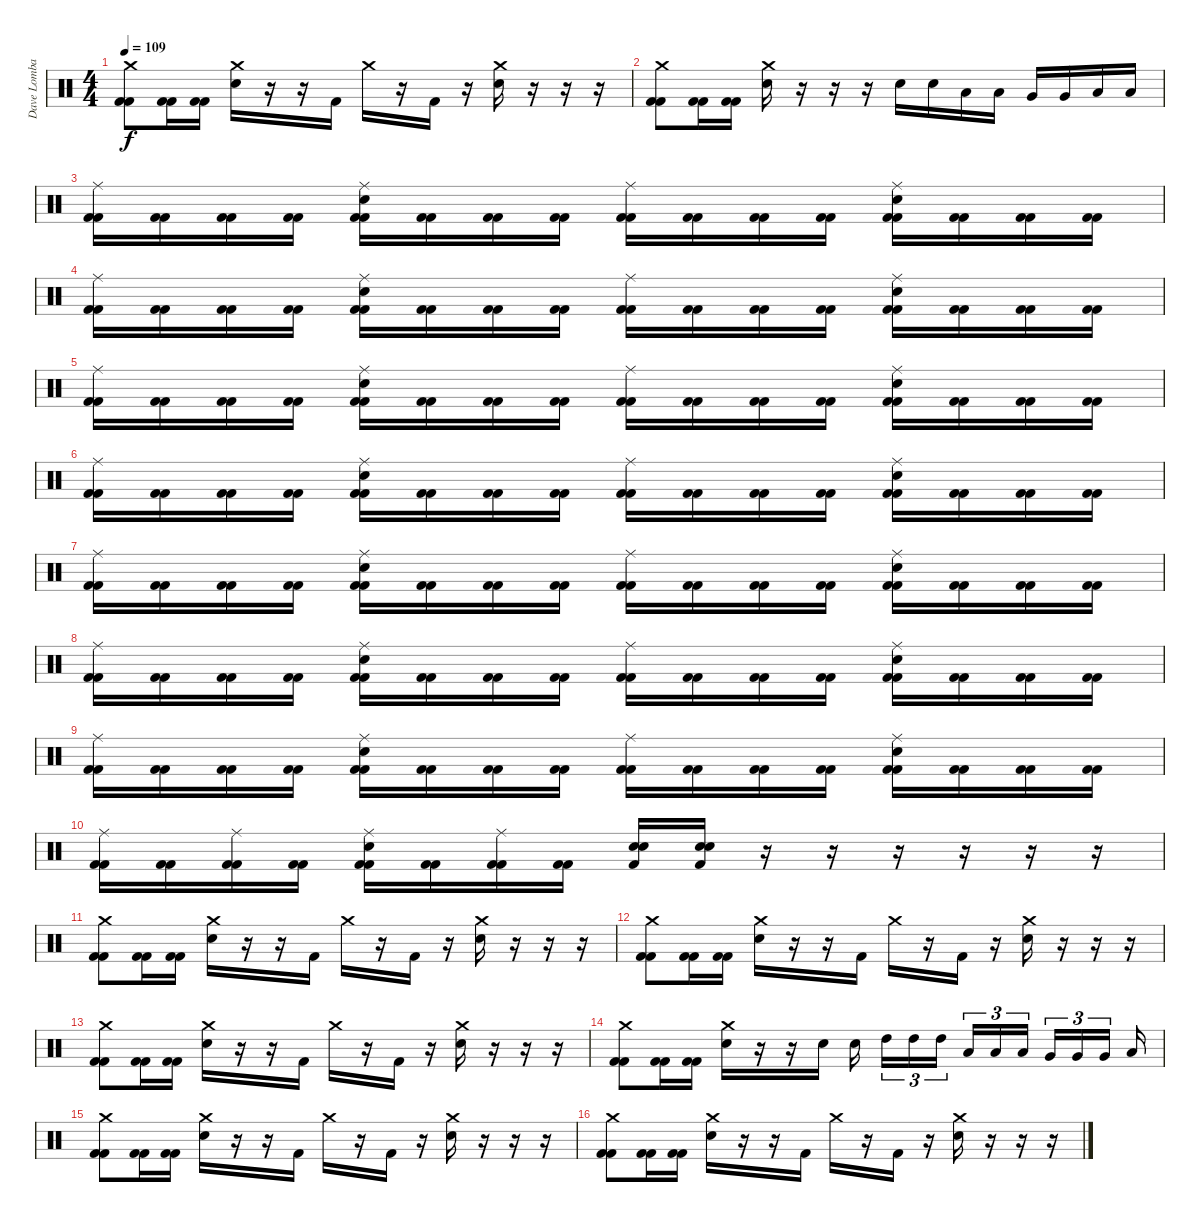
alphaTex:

\track ("Dave Lombardo" "Dave Lomba") {instrument percussion}
\staff {score}
\articulation defaults
\ts (4 4)
\tempo 109
\clef neutral
\ks c
("Kick (hit) 2" "Crash medium (hit)" "Kick (hit) 2").8{dy f} ("Kick (hit) 2" "Kick (hit) 2").16 ("Kick (hit) 2" "Kick (hit) 2").16 ("Crash medium (hit)" "Electric Snare (hit)").16 r.16 r.16 "Kick (hit) 2".16 "Crash medium (hit)".16 r.16 "Kick (hit) 2".16 r.16 ("Crash medium (hit)" "Electric Snare (hit)").16 r.16 r.16 r.16 |
("Kick (hit) 2" "Crash medium (hit)" "Kick (hit) 2").8 ("Kick (hit) 2" "Kick (hit) 2").16 ("Kick (hit) 2" "Kick (hit) 2").16 ("Crash medium (hit)" "Electric Snare (hit)").16 r.16 r.16 r.16 "Electric Snare (hit)".16 "Electric Snare (hit)".16 "Low Tom (hit)".16 "Low Tom (hit)".16 "Very Low Tom (hit)".16 "Very Low Tom (hit)".16 "Low Floor Tom (hit)".16 "Low Floor Tom (hit)".16 |
("Kick (hit) 2" "Ride (middle)" "Kick (hit) 2").16 ("Kick (hit) 2" "Kick (hit) 2").16 ("Kick (hit) 2" "Kick (hit) 2").16 ("Kick (hit) 2" "Kick (hit) 2").16 ("Kick (hit) 2" "Ride (middle)" "Electric Snare (hit)" "Kick (hit) 2").16 ("Kick (hit) 2" "Kick (hit) 2").16 ("Kick (hit) 2" "Kick (hit) 2").16 ("Kick (hit) 2" "Kick (hit) 2").16 ("Kick (hit) 2" "Ride (middle)" "Kick (hit) 2").16 ("Kick (hit) 2" "Kick (hit) 2").16 ("Kick (hit) 2" "Kick (hit) 2").16 ("Kick (hit) 2" "Kick (hit) 2").16 ("Kick (hit) 2" "Ride (middle)" "Electric Snare (hit)" "Kick (hit) 2").16 ("Kick (hit) 2" "Kick (hit) 2").16 ("Kick (hit) 2" "Kick (hit) 2").16 ("Kick (hit) 2" "Kick (hit) 2").16 |
("Kick (hit) 2" "Ride (middle)" "Kick (hit) 2").16 ("Kick (hit) 2" "Kick (hit) 2").16 ("Kick (hit) 2" "Kick (hit) 2").16 ("Kick (hit) 2" "Kick (hit) 2").16 ("Kick (hit) 2" "Ride (middle)" "Electric Snare (hit)" "Kick (hit) 2").16 ("Kick (hit) 2" "Kick (hit) 2").16 ("Kick (hit) 2" "Kick (hit) 2").16 ("Kick (hit) 2" "Kick (hit) 2").16 ("Kick (hit) 2" "Ride (middle)" "Kick (hit) 2").16 ("Kick (hit) 2" "Kick (hit) 2").16 ("Kick (hit) 2" "Kick (hit) 2").16 ("Kick (hit) 2" "Kick (hit) 2").16 ("Kick (hit) 2" "Ride (middle)" "Electric Snare (hit)" "Kick (hit) 2").16 ("Kick (hit) 2" "Kick (hit) 2").16 ("Kick (hit) 2" "Kick (hit) 2").16 ("Kick (hit) 2" "Kick (hit) 2").16 |
("Kick (hit) 2" "Ride (middle)" "Kick (hit) 2").16 ("Kick (hit) 2" "Kick (hit) 2").16 ("Kick (hit) 2" "Kick (hit) 2").16 ("Kick (hit) 2" "Kick (hit) 2").16 ("Kick (hit) 2" "Ride (middle)" "Electric Snare (hit)" "Kick (hit) 2").16 ("Kick (hit) 2" "Kick (hit) 2").16 ("Kick (hit) 2" "Kick (hit) 2").16 ("Kick (hit) 2" "Kick (hit) 2").16 ("Kick (hit) 2" "Ride (middle)" "Kick (hit) 2").16 ("Kick (hit) 2" "Kick (hit) 2").16 ("Kick (hit) 2" "Kick (hit) 2").16 ("Kick (hit) 2" "Kick (hit) 2").16 ("Kick (hit) 2" "Ride (middle)" "Electric Snare (hit)" "Kick (hit) 2").16 ("Kick (hit) 2" "Kick (hit) 2").16 ("Kick (hit) 2" "Kick (hit) 2").16 ("Kick (hit) 2" "Kick (hit) 2").16 |
("Kick (hit) 2" "Ride (middle)" "Kick (hit) 2").16 ("Kick (hit) 2" "Kick (hit) 2").16 ("Kick (hit) 2" "Kick (hit) 2").16 ("Kick (hit) 2" "Kick (hit) 2").16 ("Kick (hit) 2" "Ride (middle)" "Electric Snare (hit)" "Kick (hit) 2").16 ("Kick (hit) 2" "Kick (hit) 2").16 ("Kick (hit) 2" "Kick (hit) 2").16 ("Kick (hit) 2" "Kick (hit) 2").16 ("Kick (hit) 2" "Ride (middle)" "Kick (hit) 2").16 ("Kick (hit) 2" "Kick (hit) 2").16 ("Kick (hit) 2" "Kick (hit) 2").16 ("Kick (hit) 2" "Kick (hit) 2").16 ("Kick (hit) 2" "Ride (middle)" "Electric Snare (hit)" "Kick (hit) 2").16 ("Kick (hit) 2" "Kick (hit) 2").16 ("Kick (hit) 2" "Kick (hit) 2").16 ("Kick (hit) 2" "Kick (hit) 2").16 |
("Kick (hit) 2" "Ride (middle)" "Kick (hit) 2").16 ("Kick (hit) 2" "Kick (hit) 2").16 ("Kick (hit) 2" "Kick (hit) 2").16 ("Kick (hit) 2" "Kick (hit) 2").16 ("Kick (hit) 2" "Ride (middle)" "Electric Snare (hit)" "Kick (hit) 2").16 ("Kick (hit) 2" "Kick (hit) 2").16 ("Kick (hit) 2" "Kick (hit) 2").16 ("Kick (hit) 2" "Kick (hit) 2").16 ("Kick (hit) 2" "Ride (middle)" "Kick (hit) 2").16 ("Kick (hit) 2" "Kick (hit) 2").16 ("Kick (hit) 2" "Kick (hit) 2").16 ("Kick (hit) 2" "Kick (hit) 2").16 ("Kick (hit) 2" "Ride (middle)" "Electric Snare (hit)" "Kick (hit) 2").16 ("Kick (hit) 2" "Kick (hit) 2").16 ("Kick (hit) 2" "Kick (hit) 2").16 ("Kick (hit) 2" "Kick (hit) 2").16 |
("Kick (hit) 2" "Ride (middle)" "Kick (hit) 2").16 ("Kick (hit) 2" "Kick (hit) 2").16 ("Kick (hit) 2" "Kick (hit) 2").16 ("Kick (hit) 2" "Kick (hit) 2").16 ("Kick (hit) 2" "Ride (middle)" "Electric Snare (hit)" "Kick (hit) 2").16 ("Kick (hit) 2" "Kick (hit) 2").16 ("Kick (hit) 2" "Kick (hit) 2").16 ("Kick (hit) 2" "Kick (hit) 2").16 ("Kick (hit) 2" "Ride (middle)" "Kick (hit) 2").16 ("Kick (hit) 2" "Kick (hit) 2").16 ("Kick (hit) 2" "Kick (hit) 2").16 ("Kick (hit) 2" "Kick (hit) 2").16 ("Kick (hit) 2" "Ride (middle)" "Electric Snare (hit)" "Kick (hit) 2").16 ("Kick (hit) 2" "Kick (hit) 2").16 ("Kick (hit) 2" "Kick (hit) 2").16 ("Kick (hit) 2" "Kick (hit) 2").16 |
("Kick (hit) 2" "Ride (middle)" "Kick (hit) 2").16 ("Kick (hit) 2" "Kick (hit) 2").16 ("Kick (hit) 2" "Kick (hit) 2").16 ("Kick (hit) 2" "Kick (hit) 2").16 ("Kick (hit) 2" "Ride (middle)" "Electric Snare (hit)" "Kick (hit) 2").16 ("Kick (hit) 2" "Kick (hit) 2").16 ("Kick (hit) 2" "Kick (hit) 2").16 ("Kick (hit) 2" "Kick (hit) 2").16 ("Kick (hit) 2" "Ride (middle)" "Kick (hit) 2").16 ("Kick (hit) 2" "Kick (hit) 2").16 ("Kick (hit) 2" "Kick (hit) 2").16 ("Kick (hit) 2" "Kick (hit) 2").16 ("Kick (hit) 2" "Ride (middle)" "Electric Snare (hit)" "Kick (hit) 2").16 ("Kick (hit) 2" "Kick (hit) 2").16 ("Kick (hit) 2" "Kick (hit) 2").16 ("Kick (hit) 2" "Kick (hit) 2").16 |
("Kick (hit) 2" "Ride (middle)" "Kick (hit) 2").16 ("Kick (hit) 2" "Kick (hit) 2").16 ("Kick (hit) 2" "Ride (middle)" "Kick (hit) 2").16 ("Kick (hit) 2" "Kick (hit) 2").16 ("Kick (hit) 2" "Ride (middle)" "Electric Snare (hit)" "Kick (hit) 2").16 ("Kick (hit) 2" "Kick (hit) 2").16 ("Kick (hit) 2" "Ride (middle)" "Kick (hit) 2").16 ("Kick (hit) 2" "Kick (hit) 2").16 ("Kick (hit) 2" "Electric Snare (hit)" "Electric Snare (hit)").16 ("Kick (hit) 2" "Electric Snare (hit)" "Electric Snare (hit)").16 r.16 r.16 r.16 r.16 r.16 r.16 |
("Kick (hit) 2" "Crash medium (hit)" "Kick (hit) 2").8 ("Kick (hit) 2" "Kick (hit) 2").16 ("Kick (hit) 2" "Kick (hit) 2").16 ("Crash medium (hit)" "Electric Snare (hit)").16 r.16 r.16 "Kick (hit) 2".16 "Crash medium (hit)".16 r.16 "Kick (hit) 2".16 r.16 ("Crash medium (hit)" "Electric Snare (hit)").16 r.16 r.16 r.16 |
("Kick (hit) 2" "Crash medium (hit)" "Kick (hit) 2").8 ("Kick (hit) 2" "Kick (hit) 2").16 ("Kick (hit) 2" "Kick (hit) 2").16 ("Crash medium (hit)" "Electric Snare (hit)").16 r.16 r.16 "Kick (hit) 2".16 "Crash medium (hit)".16 r.16 "Kick (hit) 2".16 r.16 ("Crash medium (hit)" "Electric Snare (hit)").16 r.16 r.16 r.16 |
("Kick (hit) 2" "Crash medium (hit)" "Kick (hit) 2").8 ("Kick (hit) 2" "Kick (hit) 2").16 ("Kick (hit) 2" "Kick (hit) 2").16 ("Crash medium (hit)" "Electric Snare (hit)").16 r.16 r.16 "Kick (hit) 2".16 "Crash medium (hit)".16 r.16 "Kick (hit) 2".16 r.16 ("Crash medium (hit)" "Electric Snare (hit)").16 r.16 r.16 r.16 |
("Kick (hit) 2" "Crash medium (hit)" "Kick (hit) 2").8 ("Kick (hit) 2" "Kick (hit) 2").16 ("Kick (hit) 2" "Kick (hit) 2").16 ("Crash medium (hit)" "Electric Snare (hit)").16 r.16 r.16 "Electric Snare (hit)".16 "Electric Snare (hit)".16 "High Tom (hit)".16{tu (3 2)} "High Tom (hit)".16{tu (3 2)} "High Tom (hit)".16{tu (3 2)} "Low Tom (hit)".16{tu (3 2)} "Low Tom (hit)".16{tu (3 2)} "Low Tom (hit)".16{tu (3 2)} "Very Low Tom (hit)".16{tu (3 2)} "Very Low Tom (hit)".16{tu (3 2)} "Very Low Tom (hit)".16{tu (3 2)} "Low Floor Tom (hit)".16 |
("Kick (hit) 2" "Crash medium (hit)" "Kick (hit) 2").8 ("Kick (hit) 2" "Kick (hit) 2").16 ("Kick (hit) 2" "Kick (hit) 2").16 ("Crash medium (hit)" "Electric Snare (hit)").16 r.16 r.16 "Kick (hit) 2".16 "Crash medium (hit)".16 r.16 "Kick (hit) 2".16 r.16 ("Crash medium (hit)" "Electric Snare (hit)").16 r.16 r.16 r.16 |
("Kick (hit) 2" "Crash medium (hit)" "Kick (hit) 2").8 ("Kick (hit) 2" "Kick (hit) 2").16 ("Kick (hit) 2" "Kick (hit) 2").16 ("Crash medium (hit)" "Electric Snare (hit)").16 r.16 r.16 "Kick (hit) 2".16 "Crash medium (hit)".16 r.16 "Kick (hit) 2".16 r.16 ("Crash medium (hit)" "Electric Snare (hit)").16 r.16 r.16 r.16
